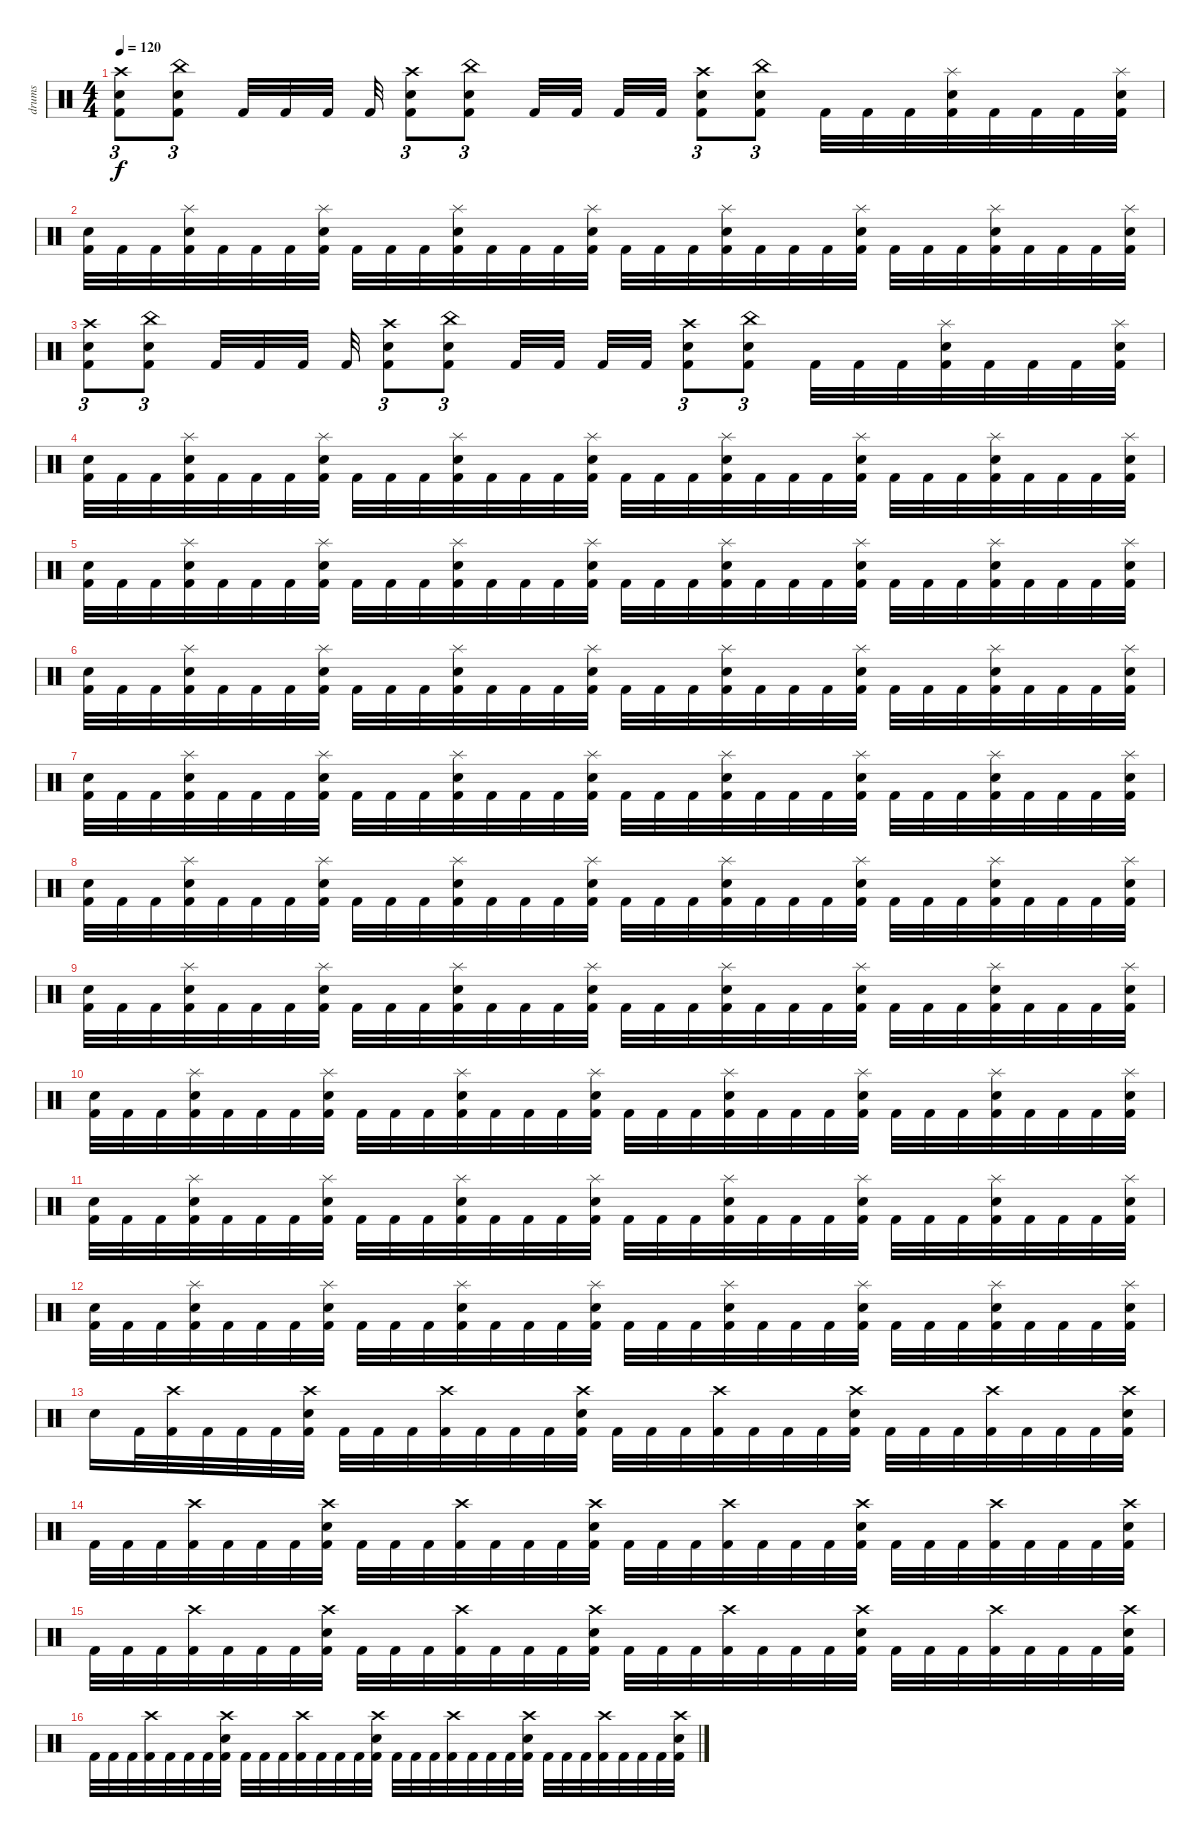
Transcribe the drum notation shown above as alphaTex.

\track ("drums" "drums") {instrument percussion}
\staff {score}
\articulation defaults
\ts (4 4)
\tempo 120
\clef neutral
\ks c
("Crash high (hit)" "Electric Snare (hit)" "Kick (hit) 2").8{tu (3 2) dy f} ("China (hit)" "Electric Snare (hit)" "Kick (hit) 2").8{tu (3 2)} "Kick (hit) 2".32 "Kick (hit) 2".32 "Kick (hit) 2".32 "Kick (hit) 2".32 ("Crash high (hit)" "Electric Snare (hit)" "Kick (hit) 2").8{tu (3 2)} ("China (hit)" "Electric Snare (hit)" "Kick (hit) 2").8{tu (3 2)} "Kick (hit) 2".32 "Kick (hit) 2".32 "Kick (hit) 2".32 "Kick (hit) 2".32 ("Crash high (hit)" "Electric Snare (hit)" "Kick (hit) 2").8{tu (3 2)} ("China (hit)" "Electric Snare (hit)" "Kick (hit) 2").8{tu (3 2)} "Kick (hit) 2".32 "Kick (hit) 2".32 "Kick (hit) 2".32 ("Splash (hit)" "Electric Snare (hit)" "Kick (hit) 2").32 "Kick (hit) 2".32 "Kick (hit) 2".32 "Kick (hit) 2".32 ("Splash (hit)" "Electric Snare (hit)" "Kick (hit) 2").32 |
("Electric Snare (hit)" "Kick (hit) 2").32 "Kick (hit) 2".32 "Kick (hit) 2".32 ("Splash (hit)" "Electric Snare (hit)" "Kick (hit) 2").32 "Kick (hit) 2".32 "Kick (hit) 2".32 "Kick (hit) 2".32 ("Splash (hit)" "Electric Snare (hit)" "Kick (hit) 2").32 "Kick (hit) 2".32 "Kick (hit) 2".32 "Kick (hit) 2".32 ("Splash (hit)" "Electric Snare (hit)" "Kick (hit) 2").32 "Kick (hit) 2".32 "Kick (hit) 2".32 "Kick (hit) 2".32 ("Splash (hit)" "Electric Snare (hit)" "Kick (hit) 2").32 "Kick (hit) 2".32 "Kick (hit) 2".32 "Kick (hit) 2".32 ("Splash (hit)" "Electric Snare (hit)" "Kick (hit) 2").32 "Kick (hit) 2".32 "Kick (hit) 2".32 "Kick (hit) 2".32 ("Splash (hit)" "Electric Snare (hit)" "Kick (hit) 2").32 "Kick (hit) 2".32 "Kick (hit) 2".32 "Kick (hit) 2".32 ("Splash (hit)" "Electric Snare (hit)" "Kick (hit) 2").32 "Kick (hit) 2".32 "Kick (hit) 2".32 "Kick (hit) 2".32 ("Splash (hit)" "Electric Snare (hit)" "Kick (hit) 2").32 |
("Crash high (hit)" "Electric Snare (hit)" "Kick (hit) 2").8{tu (3 2)} ("China (hit)" "Electric Snare (hit)" "Kick (hit) 2").8{tu (3 2)} "Kick (hit) 2".32 "Kick (hit) 2".32 "Kick (hit) 2".32 "Kick (hit) 2".32 ("Crash high (hit)" "Electric Snare (hit)" "Kick (hit) 2").8{tu (3 2)} ("China (hit)" "Electric Snare (hit)" "Kick (hit) 2").8{tu (3 2)} "Kick (hit) 2".32 "Kick (hit) 2".32 "Kick (hit) 2".32 "Kick (hit) 2".32 ("Crash high (hit)" "Electric Snare (hit)" "Kick (hit) 2").8{tu (3 2)} ("China (hit)" "Electric Snare (hit)" "Kick (hit) 2").8{tu (3 2)} "Kick (hit) 2".32 "Kick (hit) 2".32 "Kick (hit) 2".32 ("Splash (hit)" "Electric Snare (hit)" "Kick (hit) 2").32 "Kick (hit) 2".32 "Kick (hit) 2".32 "Kick (hit) 2".32 ("Splash (hit)" "Electric Snare (hit)" "Kick (hit) 2").32 |
("Electric Snare (hit)" "Kick (hit) 2").32 "Kick (hit) 2".32 "Kick (hit) 2".32 ("Splash (hit)" "Electric Snare (hit)" "Kick (hit) 2").32 "Kick (hit) 2".32 "Kick (hit) 2".32 "Kick (hit) 2".32 ("Splash (hit)" "Electric Snare (hit)" "Kick (hit) 2").32 "Kick (hit) 2".32 "Kick (hit) 2".32 "Kick (hit) 2".32 ("Splash (hit)" "Electric Snare (hit)" "Kick (hit) 2").32 "Kick (hit) 2".32 "Kick (hit) 2".32 "Kick (hit) 2".32 ("Splash (hit)" "Electric Snare (hit)" "Kick (hit) 2").32 "Kick (hit) 2".32 "Kick (hit) 2".32 "Kick (hit) 2".32 ("Splash (hit)" "Electric Snare (hit)" "Kick (hit) 2").32 "Kick (hit) 2".32 "Kick (hit) 2".32 "Kick (hit) 2".32 ("Splash (hit)" "Electric Snare (hit)" "Kick (hit) 2").32 "Kick (hit) 2".32 "Kick (hit) 2".32 "Kick (hit) 2".32 ("Splash (hit)" "Electric Snare (hit)" "Kick (hit) 2").32 "Kick (hit) 2".32 "Kick (hit) 2".32 "Kick (hit) 2".32 ("Splash (hit)" "Electric Snare (hit)" "Kick (hit) 2").32 |
("Electric Snare (hit)" "Kick (hit) 2").32 "Kick (hit) 2".32 "Kick (hit) 2".32 ("Splash (hit)" "Electric Snare (hit)" "Kick (hit) 2").32 "Kick (hit) 2".32 "Kick (hit) 2".32 "Kick (hit) 2".32 ("Splash (hit)" "Electric Snare (hit)" "Kick (hit) 2").32 "Kick (hit) 2".32 "Kick (hit) 2".32 "Kick (hit) 2".32 ("Splash (hit)" "Electric Snare (hit)" "Kick (hit) 2").32 "Kick (hit) 2".32 "Kick (hit) 2".32 "Kick (hit) 2".32 ("Splash (hit)" "Electric Snare (hit)" "Kick (hit) 2").32 "Kick (hit) 2".32 "Kick (hit) 2".32 "Kick (hit) 2".32 ("Splash (hit)" "Electric Snare (hit)" "Kick (hit) 2").32 "Kick (hit) 2".32 "Kick (hit) 2".32 "Kick (hit) 2".32 ("Splash (hit)" "Electric Snare (hit)" "Kick (hit) 2").32 "Kick (hit) 2".32 "Kick (hit) 2".32 "Kick (hit) 2".32 ("Splash (hit)" "Electric Snare (hit)" "Kick (hit) 2").32 "Kick (hit) 2".32 "Kick (hit) 2".32 "Kick (hit) 2".32 ("Splash (hit)" "Electric Snare (hit)" "Kick (hit) 2").32 |
("Electric Snare (hit)" "Kick (hit) 2").32 "Kick (hit) 2".32 "Kick (hit) 2".32 ("Splash (hit)" "Electric Snare (hit)" "Kick (hit) 2").32 "Kick (hit) 2".32 "Kick (hit) 2".32 "Kick (hit) 2".32 ("Splash (hit)" "Electric Snare (hit)" "Kick (hit) 2").32 "Kick (hit) 2".32 "Kick (hit) 2".32 "Kick (hit) 2".32 ("Splash (hit)" "Electric Snare (hit)" "Kick (hit) 2").32 "Kick (hit) 2".32 "Kick (hit) 2".32 "Kick (hit) 2".32 ("Splash (hit)" "Electric Snare (hit)" "Kick (hit) 2").32 "Kick (hit) 2".32 "Kick (hit) 2".32 "Kick (hit) 2".32 ("Splash (hit)" "Electric Snare (hit)" "Kick (hit) 2").32 "Kick (hit) 2".32 "Kick (hit) 2".32 "Kick (hit) 2".32 ("Splash (hit)" "Electric Snare (hit)" "Kick (hit) 2").32 "Kick (hit) 2".32 "Kick (hit) 2".32 "Kick (hit) 2".32 ("Splash (hit)" "Electric Snare (hit)" "Kick (hit) 2").32 "Kick (hit) 2".32 "Kick (hit) 2".32 "Kick (hit) 2".32 ("Splash (hit)" "Electric Snare (hit)" "Kick (hit) 2").32 |
("Electric Snare (hit)" "Kick (hit) 2").32 "Kick (hit) 2".32 "Kick (hit) 2".32 ("Splash (hit)" "Electric Snare (hit)" "Kick (hit) 2").32 "Kick (hit) 2".32 "Kick (hit) 2".32 "Kick (hit) 2".32 ("Splash (hit)" "Electric Snare (hit)" "Kick (hit) 2").32 "Kick (hit) 2".32 "Kick (hit) 2".32 "Kick (hit) 2".32 ("Splash (hit)" "Electric Snare (hit)" "Kick (hit) 2").32 "Kick (hit) 2".32 "Kick (hit) 2".32 "Kick (hit) 2".32 ("Splash (hit)" "Electric Snare (hit)" "Kick (hit) 2").32 "Kick (hit) 2".32 "Kick (hit) 2".32 "Kick (hit) 2".32 ("Splash (hit)" "Electric Snare (hit)" "Kick (hit) 2").32 "Kick (hit) 2".32 "Kick (hit) 2".32 "Kick (hit) 2".32 ("Splash (hit)" "Electric Snare (hit)" "Kick (hit) 2").32 "Kick (hit) 2".32 "Kick (hit) 2".32 "Kick (hit) 2".32 ("Splash (hit)" "Electric Snare (hit)" "Kick (hit) 2").32 "Kick (hit) 2".32 "Kick (hit) 2".32 "Kick (hit) 2".32 ("Splash (hit)" "Electric Snare (hit)" "Kick (hit) 2").32 |
("Electric Snare (hit)" "Kick (hit) 2").32 "Kick (hit) 2".32 "Kick (hit) 2".32 ("Splash (hit)" "Electric Snare (hit)" "Kick (hit) 2").32 "Kick (hit) 2".32 "Kick (hit) 2".32 "Kick (hit) 2".32 ("Splash (hit)" "Electric Snare (hit)" "Kick (hit) 2").32 "Kick (hit) 2".32 "Kick (hit) 2".32 "Kick (hit) 2".32 ("Splash (hit)" "Electric Snare (hit)" "Kick (hit) 2").32 "Kick (hit) 2".32 "Kick (hit) 2".32 "Kick (hit) 2".32 ("Splash (hit)" "Electric Snare (hit)" "Kick (hit) 2").32 "Kick (hit) 2".32 "Kick (hit) 2".32 "Kick (hit) 2".32 ("Splash (hit)" "Electric Snare (hit)" "Kick (hit) 2").32 "Kick (hit) 2".32 "Kick (hit) 2".32 "Kick (hit) 2".32 ("Splash (hit)" "Electric Snare (hit)" "Kick (hit) 2").32 "Kick (hit) 2".32 "Kick (hit) 2".32 "Kick (hit) 2".32 ("Splash (hit)" "Electric Snare (hit)" "Kick (hit) 2").32 "Kick (hit) 2".32 "Kick (hit) 2".32 "Kick (hit) 2".32 ("Splash (hit)" "Electric Snare (hit)" "Kick (hit) 2").32 |
("Electric Snare (hit)" "Kick (hit) 2").32 "Kick (hit) 2".32 "Kick (hit) 2".32 ("Splash (hit)" "Electric Snare (hit)" "Kick (hit) 2").32 "Kick (hit) 2".32 "Kick (hit) 2".32 "Kick (hit) 2".32 ("Splash (hit)" "Electric Snare (hit)" "Kick (hit) 2").32 "Kick (hit) 2".32 "Kick (hit) 2".32 "Kick (hit) 2".32 ("Splash (hit)" "Electric Snare (hit)" "Kick (hit) 2").32 "Kick (hit) 2".32 "Kick (hit) 2".32 "Kick (hit) 2".32 ("Splash (hit)" "Electric Snare (hit)" "Kick (hit) 2").32 "Kick (hit) 2".32 "Kick (hit) 2".32 "Kick (hit) 2".32 ("Splash (hit)" "Electric Snare (hit)" "Kick (hit) 2").32 "Kick (hit) 2".32 "Kick (hit) 2".32 "Kick (hit) 2".32 ("Splash (hit)" "Electric Snare (hit)" "Kick (hit) 2").32 "Kick (hit) 2".32 "Kick (hit) 2".32 "Kick (hit) 2".32 ("Splash (hit)" "Electric Snare (hit)" "Kick (hit) 2").32 "Kick (hit) 2".32 "Kick (hit) 2".32 "Kick (hit) 2".32 ("Splash (hit)" "Electric Snare (hit)" "Kick (hit) 2").32 |
("Electric Snare (hit)" "Kick (hit) 2").32 "Kick (hit) 2".32 "Kick (hit) 2".32 ("Splash (hit)" "Electric Snare (hit)" "Kick (hit) 2").32 "Kick (hit) 2".32 "Kick (hit) 2".32 "Kick (hit) 2".32 ("Splash (hit)" "Electric Snare (hit)" "Kick (hit) 2").32 "Kick (hit) 2".32 "Kick (hit) 2".32 "Kick (hit) 2".32 ("Splash (hit)" "Electric Snare (hit)" "Kick (hit) 2").32 "Kick (hit) 2".32 "Kick (hit) 2".32 "Kick (hit) 2".32 ("Splash (hit)" "Electric Snare (hit)" "Kick (hit) 2").32 "Kick (hit) 2".32 "Kick (hit) 2".32 "Kick (hit) 2".32 ("Splash (hit)" "Electric Snare (hit)" "Kick (hit) 2").32 "Kick (hit) 2".32 "Kick (hit) 2".32 "Kick (hit) 2".32 ("Splash (hit)" "Electric Snare (hit)" "Kick (hit) 2").32 "Kick (hit) 2".32 "Kick (hit) 2".32 "Kick (hit) 2".32 ("Splash (hit)" "Electric Snare (hit)" "Kick (hit) 2").32 "Kick (hit) 2".32 "Kick (hit) 2".32 "Kick (hit) 2".32 ("Splash (hit)" "Electric Snare (hit)" "Kick (hit) 2").32 |
("Electric Snare (hit)" "Kick (hit) 2").32 "Kick (hit) 2".32 "Kick (hit) 2".32 ("Splash (hit)" "Electric Snare (hit)" "Kick (hit) 2").32 "Kick (hit) 2".32 "Kick (hit) 2".32 "Kick (hit) 2".32 ("Splash (hit)" "Electric Snare (hit)" "Kick (hit) 2").32 "Kick (hit) 2".32 "Kick (hit) 2".32 "Kick (hit) 2".32 ("Splash (hit)" "Electric Snare (hit)" "Kick (hit) 2").32 "Kick (hit) 2".32 "Kick (hit) 2".32 "Kick (hit) 2".32 ("Splash (hit)" "Electric Snare (hit)" "Kick (hit) 2").32 "Kick (hit) 2".32 "Kick (hit) 2".32 "Kick (hit) 2".32 ("Splash (hit)" "Electric Snare (hit)" "Kick (hit) 2").32 "Kick (hit) 2".32 "Kick (hit) 2".32 "Kick (hit) 2".32 ("Splash (hit)" "Electric Snare (hit)" "Kick (hit) 2").32 "Kick (hit) 2".32 "Kick (hit) 2".32 "Kick (hit) 2".32 ("Splash (hit)" "Electric Snare (hit)" "Kick (hit) 2").32 "Kick (hit) 2".32 "Kick (hit) 2".32 "Kick (hit) 2".32 ("Splash (hit)" "Electric Snare (hit)" "Kick (hit) 2").32 |
("Electric Snare (hit)" "Kick (hit) 2").32 "Kick (hit) 2".32 "Kick (hit) 2".32 ("Splash (hit)" "Electric Snare (hit)" "Kick (hit) 2").32 "Kick (hit) 2".32 "Kick (hit) 2".32 "Kick (hit) 2".32 ("Splash (hit)" "Electric Snare (hit)" "Kick (hit) 2").32 "Kick (hit) 2".32 "Kick (hit) 2".32 "Kick (hit) 2".32 ("Splash (hit)" "Electric Snare (hit)" "Kick (hit) 2").32 "Kick (hit) 2".32 "Kick (hit) 2".32 "Kick (hit) 2".32 ("Splash (hit)" "Electric Snare (hit)" "Kick (hit) 2").32 "Kick (hit) 2".32 "Kick (hit) 2".32 "Kick (hit) 2".32 ("Splash (hit)" "Electric Snare (hit)" "Kick (hit) 2").32 "Kick (hit) 2".32 "Kick (hit) 2".32 "Kick (hit) 2".32 ("Splash (hit)" "Electric Snare (hit)" "Kick (hit) 2").32 "Kick (hit) 2".32 "Kick (hit) 2".32 "Kick (hit) 2".32 ("Splash (hit)" "Electric Snare (hit)" "Kick (hit) 2").32 "Kick (hit) 2".32 "Kick (hit) 2".32 "Kick (hit) 2".32 ("Splash (hit)" "Electric Snare (hit)" "Kick (hit) 2").32 |
"Electric Snare (hit)".16 "Kick (hit) 2".32 ("Crash high (hit)" "Kick (hit) 2").32 "Kick (hit) 2".32 "Kick (hit) 2".32 "Kick (hit) 2".32 ("Crash high (hit)" "Electric Snare (hit)" "Kick (hit) 2").32 "Kick (hit) 2".32 "Kick (hit) 2".32 "Kick (hit) 2".32 ("Crash high (hit)" "Kick (hit) 2").32 "Kick (hit) 2".32 "Kick (hit) 2".32 "Kick (hit) 2".32 ("Crash high (hit)" "Electric Snare (hit)" "Kick (hit) 2").32 "Kick (hit) 2".32 "Kick (hit) 2".32 "Kick (hit) 2".32 ("Crash high (hit)" "Kick (hit) 2").32 "Kick (hit) 2".32 "Kick (hit) 2".32 "Kick (hit) 2".32 ("Crash high (hit)" "Electric Snare (hit)" "Kick (hit) 2").32 "Kick (hit) 2".32 "Kick (hit) 2".32 "Kick (hit) 2".32 ("Crash high (hit)" "Kick (hit) 2").32 "Kick (hit) 2".32 "Kick (hit) 2".32 "Kick (hit) 2".32 ("Crash high (hit)" "Electric Snare (hit)" "Kick (hit) 2").32 |
"Kick (hit) 2".32 "Kick (hit) 2".32 "Kick (hit) 2".32 ("Crash high (hit)" "Kick (hit) 2").32 "Kick (hit) 2".32 "Kick (hit) 2".32 "Kick (hit) 2".32 ("Crash high (hit)" "Electric Snare (hit)" "Kick (hit) 2").32 "Kick (hit) 2".32 "Kick (hit) 2".32 "Kick (hit) 2".32 ("Crash high (hit)" "Kick (hit) 2").32 "Kick (hit) 2".32 "Kick (hit) 2".32 "Kick (hit) 2".32 ("Crash high (hit)" "Electric Snare (hit)" "Kick (hit) 2").32 "Kick (hit) 2".32 "Kick (hit) 2".32 "Kick (hit) 2".32 ("Crash high (hit)" "Kick (hit) 2").32 "Kick (hit) 2".32 "Kick (hit) 2".32 "Kick (hit) 2".32 ("Crash high (hit)" "Electric Snare (hit)" "Kick (hit) 2").32 "Kick (hit) 2".32 "Kick (hit) 2".32 "Kick (hit) 2".32 ("Crash high (hit)" "Kick (hit) 2").32 "Kick (hit) 2".32 "Kick (hit) 2".32 "Kick (hit) 2".32 ("Crash high (hit)" "Electric Snare (hit)" "Kick (hit) 2").32 |
"Kick (hit) 2".32 "Kick (hit) 2".32 "Kick (hit) 2".32 ("Crash high (hit)" "Kick (hit) 2").32 "Kick (hit) 2".32 "Kick (hit) 2".32 "Kick (hit) 2".32 ("Crash high (hit)" "Electric Snare (hit)" "Kick (hit) 2").32 "Kick (hit) 2".32 "Kick (hit) 2".32 "Kick (hit) 2".32 ("Crash high (hit)" "Kick (hit) 2").32 "Kick (hit) 2".32 "Kick (hit) 2".32 "Kick (hit) 2".32 ("Crash high (hit)" "Electric Snare (hit)" "Kick (hit) 2").32 "Kick (hit) 2".32 "Kick (hit) 2".32 "Kick (hit) 2".32 ("Crash high (hit)" "Kick (hit) 2").32 "Kick (hit) 2".32 "Kick (hit) 2".32 "Kick (hit) 2".32 ("Crash high (hit)" "Electric Snare (hit)" "Kick (hit) 2").32 "Kick (hit) 2".32 "Kick (hit) 2".32 "Kick (hit) 2".32 ("Crash high (hit)" "Kick (hit) 2").32 "Kick (hit) 2".32 "Kick (hit) 2".32 "Kick (hit) 2".32 ("Crash high (hit)" "Electric Snare (hit)" "Kick (hit) 2").32 |
"Kick (hit) 2".32 "Kick (hit) 2".32 "Kick (hit) 2".32 ("Crash high (hit)" "Kick (hit) 2").32 "Kick (hit) 2".32 "Kick (hit) 2".32 "Kick (hit) 2".32 ("Crash high (hit)" "Electric Snare (hit)" "Kick (hit) 2").32 "Kick (hit) 2".32 "Kick (hit) 2".32 "Kick (hit) 2".32 ("Crash high (hit)" "Kick (hit) 2").32 "Kick (hit) 2".32 "Kick (hit) 2".32 "Kick (hit) 2".32 ("Crash high (hit)" "Electric Snare (hit)" "Kick (hit) 2").32 "Kick (hit) 2".32 "Kick (hit) 2".32 "Kick (hit) 2".32 ("Crash high (hit)" "Kick (hit) 2").32 "Kick (hit) 2".32 "Kick (hit) 2".32 "Kick (hit) 2".32 ("Crash high (hit)" "Electric Snare (hit)" "Kick (hit) 2").32 "Kick (hit) 2".32 "Kick (hit) 2".32 "Kick (hit) 2".32 ("Crash high (hit)" "Kick (hit) 2").32 "Kick (hit) 2".32 "Kick (hit) 2".32 "Kick (hit) 2".32 ("Crash high (hit)" "Electric Snare (hit)" "Kick (hit) 2").32
